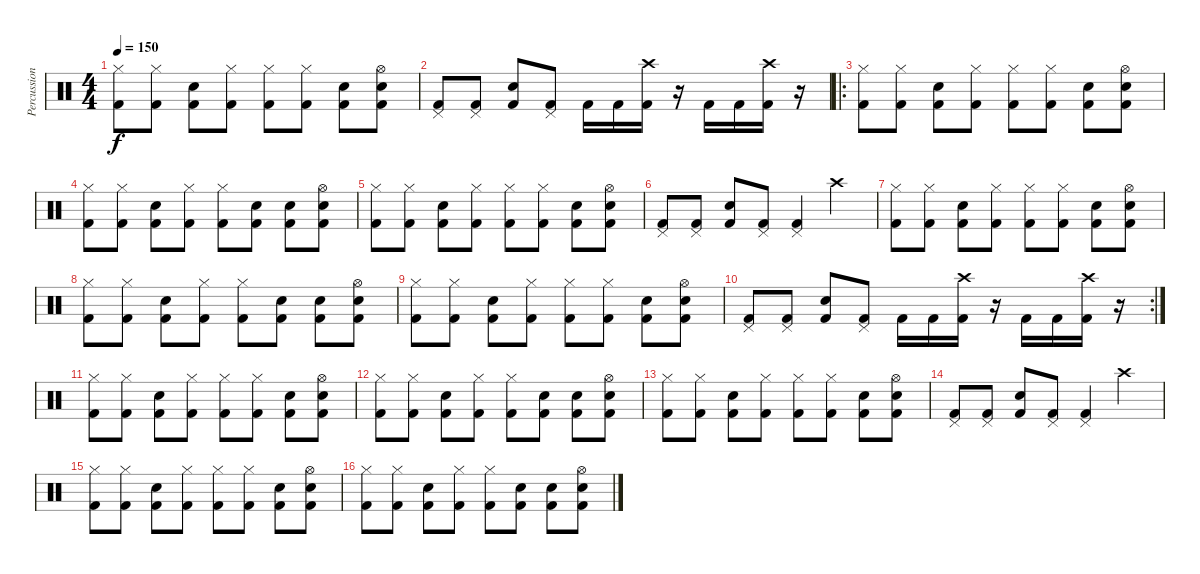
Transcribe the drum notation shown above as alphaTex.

\track ("Percussion" "Percussion") {instrument percussion}
\staff {score}
\articulation defaults
\ts (4 4)
\tempo 150
\clef neutral
\ks c
("Hi-Hat (closed)" "Kick (hit) 2").8{dy f} ("Hi-Hat (closed)" "Kick (hit) 2").8 ("Snare (hit) 2" "Kick (hit) 2").8 ("Hi-Hat (closed)" "Kick (hit) 2").8 ("Hi-Hat (closed)" "Kick (hit) 2").8 ("Hi-Hat (closed)" "Kick (hit) 2").8 ("Snare (hit) 2" "Kick (hit) 2").8 ("Hi-Hat (open)" "Snare (hit) 2" "Kick (hit) 2").8 |
("Pedal Hi-Hat (hit)" "Kick (hit) 2").8 ("Pedal Hi-Hat (hit)" "Kick (hit) 2").8 ("Snare (hit) 2" "Kick (hit) 2").8 ("Pedal Hi-Hat (hit)" "Kick (hit) 2").8 "Kick (hit) 2".16 "Kick (hit) 2".16 ("Crash high (hit)" "Kick (hit) 2").16 r.16 "Kick (hit) 2".16 "Kick (hit) 2".16 ("Crash high (hit)" "Kick (hit) 2").16 r.16 |
\ro
("Hi-Hat (closed)" "Kick (hit) 2").8 ("Hi-Hat (closed)" "Kick (hit) 2").8 ("Snare (hit) 2" "Kick (hit) 2").8 ("Hi-Hat (closed)" "Kick (hit) 2").8 ("Hi-Hat (closed)" "Kick (hit) 2").8 ("Hi-Hat (closed)" "Kick (hit) 2").8 ("Snare (hit) 2" "Kick (hit) 2").8 ("Hi-Hat (open)" "Snare (hit) 2" "Kick (hit) 2").8 |
("Hi-Hat (closed)" "Kick (hit) 2").8 ("Hi-Hat (closed)" "Kick (hit) 2").8 ("Snare (hit) 2" "Kick (hit) 2").8 ("Hi-Hat (closed)" "Kick (hit) 2").8 ("Hi-Hat (closed)" "Kick (hit) 2").8 ("Snare (hit) 2" "Kick (hit) 2").8 ("Snare (hit) 2" "Kick (hit) 2").8 ("Hi-Hat (open)" "Snare (hit) 2" "Kick (hit) 2").8 |
("Hi-Hat (closed)" "Kick (hit) 2").8 ("Hi-Hat (closed)" "Kick (hit) 2").8 ("Snare (hit) 2" "Kick (hit) 2").8 ("Hi-Hat (closed)" "Kick (hit) 2").8 ("Hi-Hat (closed)" "Kick (hit) 2").8 ("Hi-Hat (closed)" "Kick (hit) 2").8 ("Snare (hit) 2" "Kick (hit) 2").8 ("Hi-Hat (open)" "Snare (hit) 2" "Kick (hit) 2").8 |
("Pedal Hi-Hat (hit)" "Kick (hit) 2").8 ("Pedal Hi-Hat (hit)" "Kick (hit) 2").8 ("Snare (hit) 2" "Kick (hit) 2").8 ("Pedal Hi-Hat (hit)" "Kick (hit) 2").8 ("Pedal Hi-Hat (hit)" "Kick (hit) 2").4 "Crash high (hit)".4 |
("Hi-Hat (closed)" "Kick (hit) 2").8 ("Hi-Hat (closed)" "Kick (hit) 2").8 ("Snare (hit) 2" "Kick (hit) 2").8 ("Hi-Hat (closed)" "Kick (hit) 2").8 ("Hi-Hat (closed)" "Kick (hit) 2").8 ("Hi-Hat (closed)" "Kick (hit) 2").8 ("Snare (hit) 2" "Kick (hit) 2").8 ("Hi-Hat (open)" "Snare (hit) 2" "Kick (hit) 2").8 |
("Hi-Hat (closed)" "Kick (hit) 2").8 ("Hi-Hat (closed)" "Kick (hit) 2").8 ("Snare (hit) 2" "Kick (hit) 2").8 ("Hi-Hat (closed)" "Kick (hit) 2").8 ("Hi-Hat (closed)" "Kick (hit) 2").8 ("Snare (hit) 2" "Kick (hit) 2").8 ("Snare (hit) 2" "Kick (hit) 2").8 ("Hi-Hat (open)" "Snare (hit) 2" "Kick (hit) 2").8 |
("Hi-Hat (closed)" "Kick (hit) 2").8 ("Hi-Hat (closed)" "Kick (hit) 2").8 ("Snare (hit) 2" "Kick (hit) 2").8 ("Hi-Hat (closed)" "Kick (hit) 2").8 ("Hi-Hat (closed)" "Kick (hit) 2").8 ("Hi-Hat (closed)" "Kick (hit) 2").8 ("Snare (hit) 2" "Kick (hit) 2").8 ("Hi-Hat (open)" "Snare (hit) 2" "Kick (hit) 2").8 |
\rc 2
("Pedal Hi-Hat (hit)" "Kick (hit) 2").8 ("Pedal Hi-Hat (hit)" "Kick (hit) 2").8 ("Snare (hit) 2" "Kick (hit) 2").8 ("Pedal Hi-Hat (hit)" "Kick (hit) 2").8 "Kick (hit) 2".16 "Kick (hit) 2".16 ("Crash high (hit)" "Kick (hit) 2").16 r.16 "Kick (hit) 2".16 "Kick (hit) 2".16 ("Crash high (hit)" "Kick (hit) 2").16 r.16 |
("Hi-Hat (closed)" "Kick (hit) 2").8 ("Hi-Hat (closed)" "Kick (hit) 2").8 ("Snare (hit) 2" "Kick (hit) 2").8 ("Hi-Hat (closed)" "Kick (hit) 2").8 ("Hi-Hat (closed)" "Kick (hit) 2").8 ("Hi-Hat (closed)" "Kick (hit) 2").8 ("Snare (hit) 2" "Kick (hit) 2").8 ("Hi-Hat (open)" "Snare (hit) 2" "Kick (hit) 2").8 |
("Hi-Hat (closed)" "Kick (hit) 2").8 ("Hi-Hat (closed)" "Kick (hit) 2").8 ("Snare (hit) 2" "Kick (hit) 2").8 ("Hi-Hat (closed)" "Kick (hit) 2").8 ("Hi-Hat (closed)" "Kick (hit) 2").8 ("Snare (hit) 2" "Kick (hit) 2").8 ("Snare (hit) 2" "Kick (hit) 2").8 ("Hi-Hat (open)" "Snare (hit) 2" "Kick (hit) 2").8 |
("Hi-Hat (closed)" "Kick (hit) 2").8 ("Hi-Hat (closed)" "Kick (hit) 2").8 ("Snare (hit) 2" "Kick (hit) 2").8 ("Hi-Hat (closed)" "Kick (hit) 2").8 ("Hi-Hat (closed)" "Kick (hit) 2").8 ("Hi-Hat (closed)" "Kick (hit) 2").8 ("Snare (hit) 2" "Kick (hit) 2").8 ("Hi-Hat (open)" "Snare (hit) 2" "Kick (hit) 2").8 |
("Pedal Hi-Hat (hit)" "Kick (hit) 2").8 ("Pedal Hi-Hat (hit)" "Kick (hit) 2").8 ("Snare (hit) 2" "Kick (hit) 2").8 ("Pedal Hi-Hat (hit)" "Kick (hit) 2").8 ("Pedal Hi-Hat (hit)" "Kick (hit) 2").4 "Crash high (hit)".4 |
("Hi-Hat (closed)" "Kick (hit) 2").8 ("Hi-Hat (closed)" "Kick (hit) 2").8 ("Snare (hit) 2" "Kick (hit) 2").8 ("Hi-Hat (closed)" "Kick (hit) 2").8 ("Hi-Hat (closed)" "Kick (hit) 2").8 ("Hi-Hat (closed)" "Kick (hit) 2").8 ("Snare (hit) 2" "Kick (hit) 2").8 ("Hi-Hat (open)" "Snare (hit) 2" "Kick (hit) 2").8 |
("Hi-Hat (closed)" "Kick (hit) 2").8 ("Hi-Hat (closed)" "Kick (hit) 2").8 ("Snare (hit) 2" "Kick (hit) 2").8 ("Hi-Hat (closed)" "Kick (hit) 2").8 ("Hi-Hat (closed)" "Kick (hit) 2").8 ("Snare (hit) 2" "Kick (hit) 2").8 ("Snare (hit) 2" "Kick (hit) 2").8 ("Hi-Hat (open)" "Snare (hit) 2" "Kick (hit) 2").8
